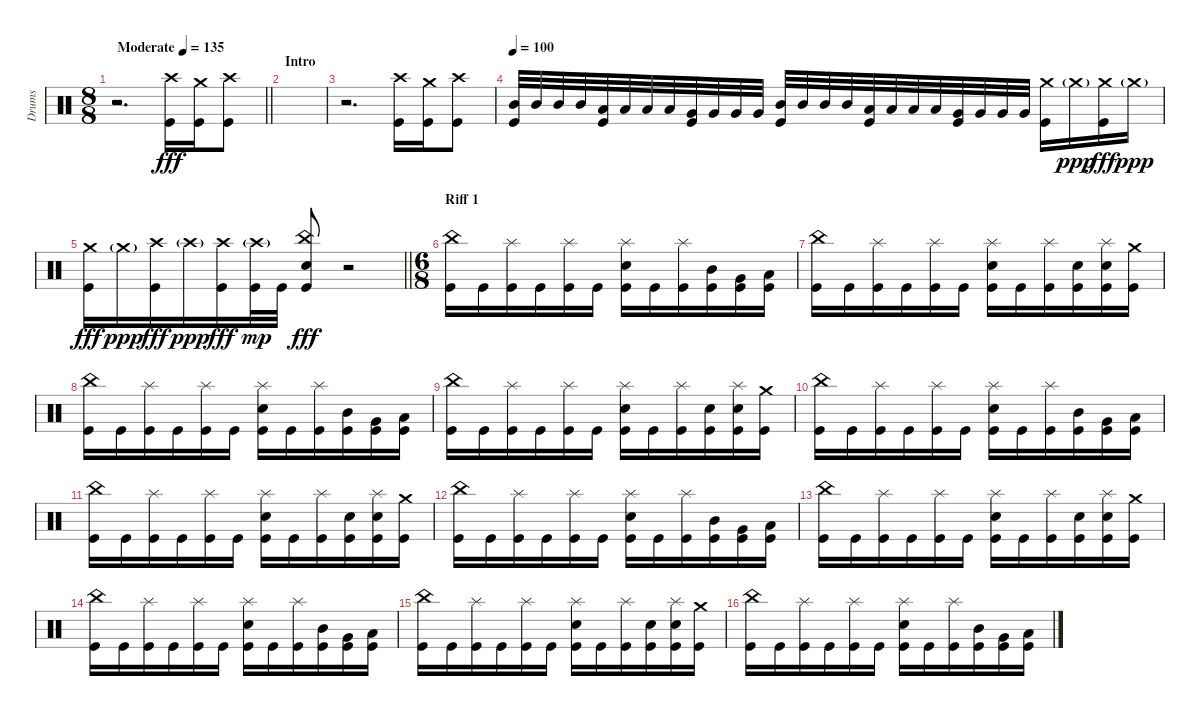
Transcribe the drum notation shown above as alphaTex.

\track ("Drums" "Drums") {instrument percussion}
\staff
\articulation defaults
\ts (8 8)
\tempo (135 "Moderate")
\clef neutral
\barLineRight lightlight
\ks c
r.2{d dy fff} ("Crash high (hit)" "Kick (hit)").16 ("Crash medium (hit)" "Kick (hit)").16 ("Crash high (hit)" "Kick (hit)").8 |
\section ("" "Intro")
|
r.2{d} ("Crash high (hit)" "Kick (hit)").16 ("Crash medium (hit)" "Kick (hit)").16 ("Crash high (hit)" "Kick (hit)").8 |
\tempo 100
("Mid Tom (hit)" "Kick (hit)").32 "Mid Tom (hit)".32 "Mid Tom (hit)".32 "Mid Tom (hit)".32 ("Low Tom (hit)" "Kick (hit)").32 "Low Tom (hit)".32 "Low Tom (hit)".32 "Low Tom (hit)".32 ("Very Low Tom (hit)" "Kick (hit)").32 "Very Low Tom (hit)".32 "Very Low Tom (hit)".32 "Very Low Tom (hit)".32 ("Mid Tom (hit)" "Kick (hit)").32 "Mid Tom (hit)".32 "Mid Tom (hit)".32 "Mid Tom (hit)".32 ("Low Tom (hit)" "Kick (hit)").32 "Low Tom (hit)".32 "Low Tom (hit)".32 "Low Tom (hit)".32 ("Very Low Tom (hit)" "Kick (hit)").32 "Very Low Tom (hit)".32 "Very Low Tom (hit)".32 "Very Low Tom (hit)".32 ("Crash medium (hit)" "Kick (hit)").16 "Crash medium (hit)"{g}.16{dy ppp} ("Crash medium (hit)" "Kick (hit)").16{dy fff} "Crash medium (hit)"{g}.16{dy ppp} |
\barLineRight lightlight
("Crash medium (hit)" "Kick (hit)").16{dy fff} "Crash medium (hit)"{g}.16{dy ppp} ("Crash high (hit)" "Kick (hit)").16{dy fff} "Crash high (hit)"{g}.16{dy ppp} ("Crash high (hit)" "Kick (hit)").16{dy fff} ("Crash high (hit)"{g} "Kick (hit)").32{dy mp} "Kick (hit)".32 ("China (hit)" "Snare (hit) 2" "Kick (hit)").8{dy fff} r.2 |
\ts (6 8)
\section ("" "Riff 1")
("China (hit)" "Kick (hit)").16 "Kick (hit)".16 ("Splash (hit)" "Kick (hit)").16 "Kick (hit)".16 ("Splash (hit)" "Kick (hit)").16 "Kick (hit)".16 ("Splash (hit)" "Snare (hit) 2" "Kick (hit)").16 "Kick (hit)".16 ("Splash (hit)" "Kick (hit)").16 ("Mid Tom (hit)" "Kick (hit)").16 ("Very Low Tom (hit)" "Kick (hit)").16 ("Low Tom (hit)" "Kick (hit)").16 |
("China (hit)" "Kick (hit)").16 "Kick (hit)".16 ("Splash (hit)" "Kick (hit)").16 "Kick (hit)".16 ("Splash (hit)" "Kick (hit)").16 "Kick (hit)".16 ("Splash (hit)" "Snare (hit) 2" "Kick (hit)").16 "Kick (hit)".16 ("Splash (hit)" "Kick (hit)").16 ("Snare (hit) 2" "Kick (hit)").16 ("Splash (hit)" "Snare (hit) 2" "Kick (hit)").16 ("Crash medium (hit)" "Kick (hit)").16 |
("China (hit)" "Kick (hit)").16 "Kick (hit)".16 ("Splash (hit)" "Kick (hit)").16 "Kick (hit)".16 ("Splash (hit)" "Kick (hit)").16 "Kick (hit)".16 ("Splash (hit)" "Snare (hit) 2" "Kick (hit)").16 "Kick (hit)".16 ("Splash (hit)" "Kick (hit)").16 ("Mid Tom (hit)" "Kick (hit)").16 ("Very Low Tom (hit)" "Kick (hit)").16 ("Low Tom (hit)" "Kick (hit)").16 |
("China (hit)" "Kick (hit)").16 "Kick (hit)".16 ("Splash (hit)" "Kick (hit)").16 "Kick (hit)".16 ("Splash (hit)" "Kick (hit)").16 "Kick (hit)".16 ("Splash (hit)" "Snare (hit) 2" "Kick (hit)").16 "Kick (hit)".16 ("Splash (hit)" "Kick (hit)").16 ("Snare (hit) 2" "Kick (hit)").16 ("Splash (hit)" "Snare (hit) 2" "Kick (hit)").16 ("Crash medium (hit)" "Kick (hit)").16 |
("China (hit)" "Kick (hit)").16 "Kick (hit)".16 ("Splash (hit)" "Kick (hit)").16 "Kick (hit)".16 ("Splash (hit)" "Kick (hit)").16 "Kick (hit)".16 ("Splash (hit)" "Snare (hit) 2" "Kick (hit)").16 "Kick (hit)".16 ("Splash (hit)" "Kick (hit)").16 ("Mid Tom (hit)" "Kick (hit)").16 ("Very Low Tom (hit)" "Kick (hit)").16 ("Low Tom (hit)" "Kick (hit)").16 |
("China (hit)" "Kick (hit)").16 "Kick (hit)".16 ("Splash (hit)" "Kick (hit)").16 "Kick (hit)".16 ("Splash (hit)" "Kick (hit)").16 "Kick (hit)".16 ("Splash (hit)" "Snare (hit) 2" "Kick (hit)").16 "Kick (hit)".16 ("Splash (hit)" "Kick (hit)").16 ("Snare (hit) 2" "Kick (hit)").16 ("Splash (hit)" "Snare (hit) 2" "Kick (hit)").16 ("Crash medium (hit)" "Kick (hit)").16 |
("China (hit)" "Kick (hit)").16 "Kick (hit)".16 ("Splash (hit)" "Kick (hit)").16 "Kick (hit)".16 ("Splash (hit)" "Kick (hit)").16 "Kick (hit)".16 ("Splash (hit)" "Snare (hit) 2" "Kick (hit)").16 "Kick (hit)".16 ("Splash (hit)" "Kick (hit)").16 ("Mid Tom (hit)" "Kick (hit)").16 ("Very Low Tom (hit)" "Kick (hit)").16 ("Low Tom (hit)" "Kick (hit)").16 |
("China (hit)" "Kick (hit)").16 "Kick (hit)".16 ("Splash (hit)" "Kick (hit)").16 "Kick (hit)".16 ("Splash (hit)" "Kick (hit)").16 "Kick (hit)".16 ("Splash (hit)" "Snare (hit) 2" "Kick (hit)").16 "Kick (hit)".16 ("Splash (hit)" "Kick (hit)").16 ("Snare (hit) 2" "Kick (hit)").16 ("Splash (hit)" "Snare (hit) 2" "Kick (hit)").16 ("Crash medium (hit)" "Kick (hit)").16 |
("China (hit)" "Kick (hit)").16 "Kick (hit)".16 ("Splash (hit)" "Kick (hit)").16 "Kick (hit)".16 ("Splash (hit)" "Kick (hit)").16 "Kick (hit)".16 ("Splash (hit)" "Snare (hit) 2" "Kick (hit)").16 "Kick (hit)".16 ("Splash (hit)" "Kick (hit)").16 ("Mid Tom (hit)" "Kick (hit)").16 ("Very Low Tom (hit)" "Kick (hit)").16 ("Low Tom (hit)" "Kick (hit)").16 |
("China (hit)" "Kick (hit)").16 "Kick (hit)".16 ("Splash (hit)" "Kick (hit)").16 "Kick (hit)".16 ("Splash (hit)" "Kick (hit)").16 "Kick (hit)".16 ("Splash (hit)" "Snare (hit) 2" "Kick (hit)").16 "Kick (hit)".16 ("Splash (hit)" "Kick (hit)").16 ("Snare (hit) 2" "Kick (hit)").16 ("Splash (hit)" "Snare (hit) 2" "Kick (hit)").16 ("Crash medium (hit)" "Kick (hit)").16 |
("China (hit)" "Kick (hit)").16 "Kick (hit)".16 ("Splash (hit)" "Kick (hit)").16 "Kick (hit)".16 ("Splash (hit)" "Kick (hit)").16 "Kick (hit)".16 ("Splash (hit)" "Snare (hit) 2" "Kick (hit)").16 "Kick (hit)".16 ("Splash (hit)" "Kick (hit)").16 ("Mid Tom (hit)" "Kick (hit)").16 ("Very Low Tom (hit)" "Kick (hit)").16 ("Low Tom (hit)" "Kick (hit)").16
